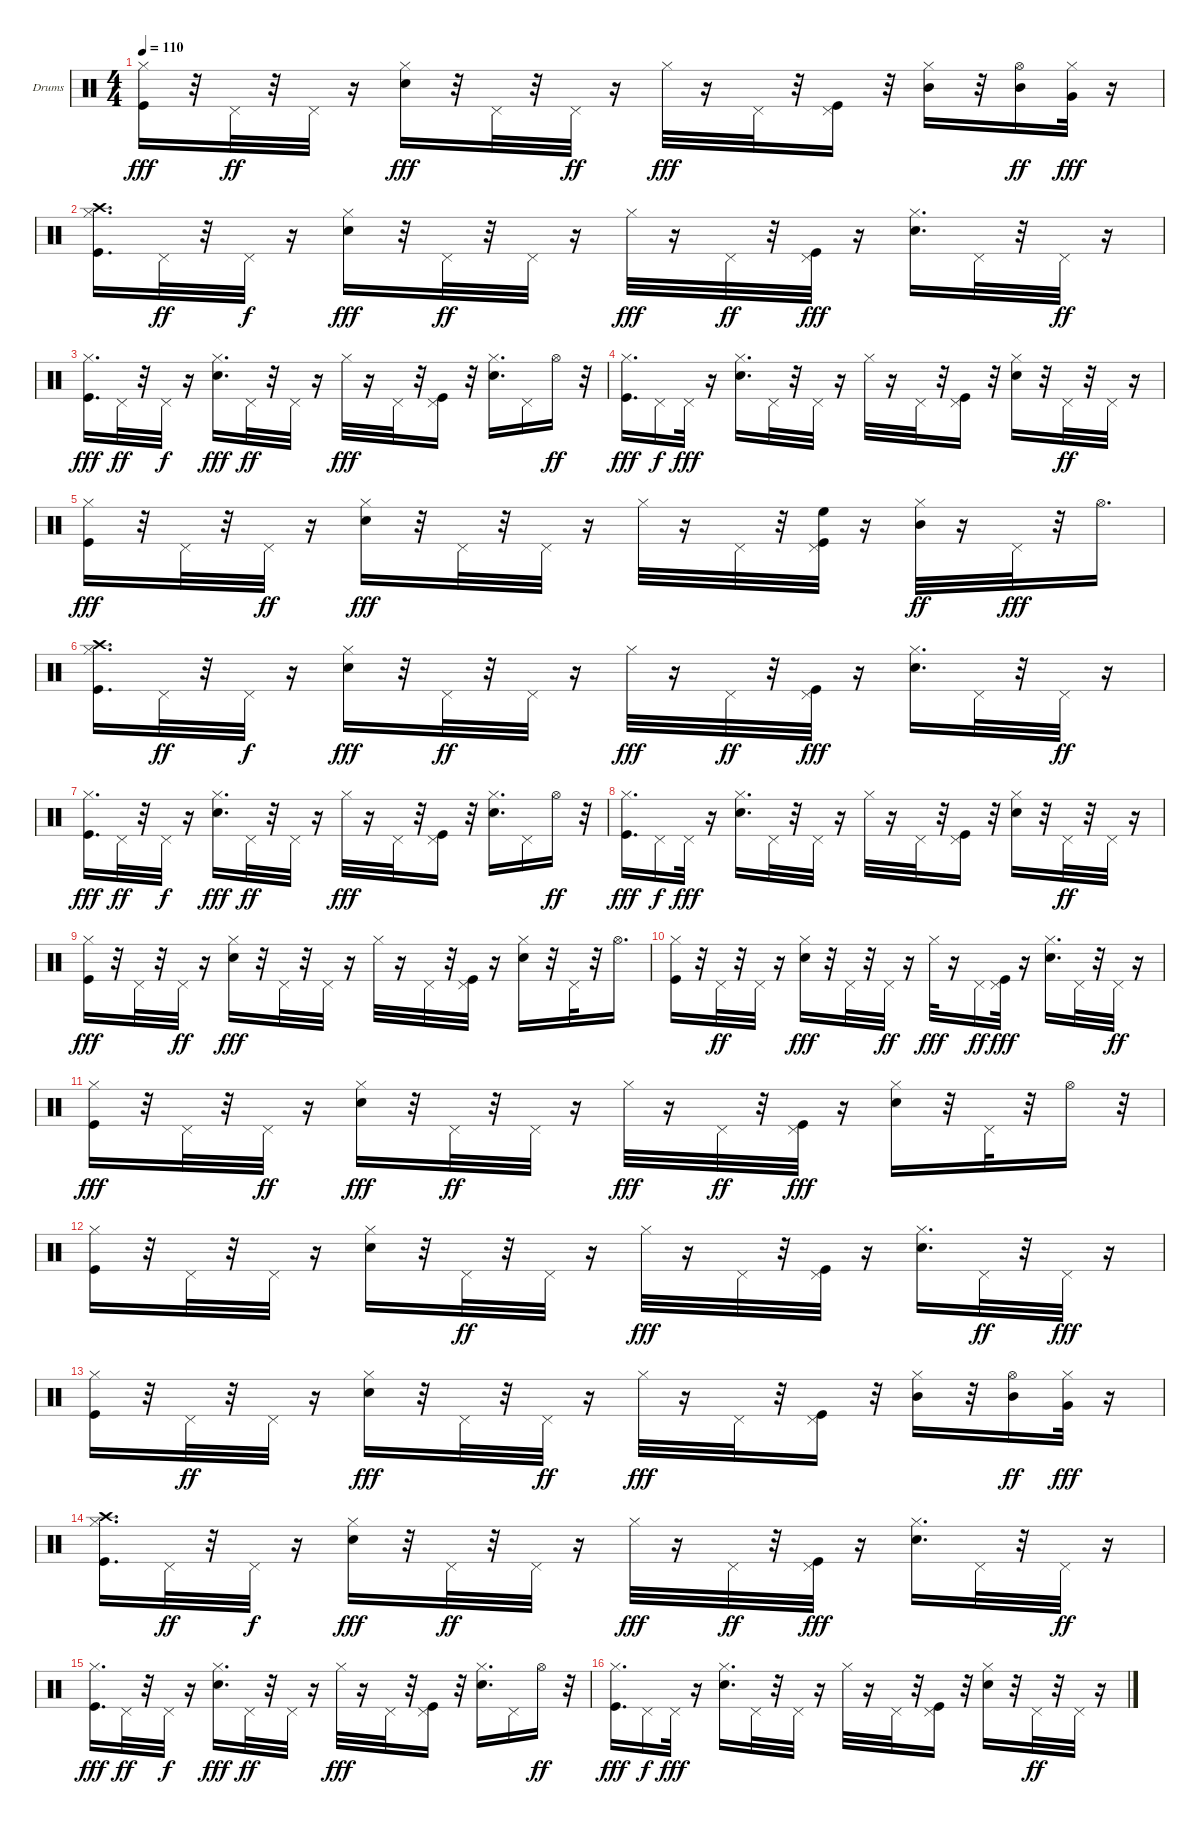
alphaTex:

\defaultSystemsLayout 4
\bracketExtendMode groupsimilarinstruments
\firstSystemTrackNameOrientation horizontal
\otherSystemsTrackNameOrientation horizontal
\track ("Drumkit" "Drums") {instrument percussion}
\staff {score}
\articulation defaults
\ts (4 4)
\tempo 110
\clef neutral
\ks c
("Kick (hit)" "Hi-Hat (closed)").16{dy fff} r.32 "Pedal Hi-Hat (hit)".32{dy ff} r.32 "Pedal Hi-Hat (hit)".32 r.16 ("Snare (hit) 2" "Hi-Hat (closed)").16{dy fff} r.32 "Pedal Hi-Hat (hit)".32 r.32 "Pedal Hi-Hat (hit)".32{dy ff} r.16 "Hi-Hat (closed)".32{dy fff} r.16 "Pedal Hi-Hat (hit)".32 r.32 ("Kick (hit)" "Pedal Hi-Hat (hit)").16 r.32 ("Mid Tom (hit)" "Hi-Hat (closed)").16 r.32 ("Mid Tom (hit)" "Hi-Hat (open)").16{dy ff} ("Very Low Tom (hit)" "Hi-Hat (closed)").32{dy fff} r.16 |
("Kick (hit)" "Crash high (hit)" "Hi-Hat (closed)").16{d} "Pedal Hi-Hat (hit)".32{dy ff} r.32 "Pedal Hi-Hat (hit)".32{dy f} r.16 ("Snare (hit) 2" "Hi-Hat (closed)").16{dy fff} r.32 "Pedal Hi-Hat (hit)".32{dy ff} r.32 "Pedal Hi-Hat (hit)".32 r.16 "Hi-Hat (closed)".32{dy fff} r.16 "Pedal Hi-Hat (hit)".32{dy ff} r.32 ("Kick (hit)" "Pedal Hi-Hat (hit)").32{dy fff} r.16 ("Snare (hit) 2" "Hi-Hat (closed)").16{d} "Pedal Hi-Hat (hit)".32 r.32 "Pedal Hi-Hat (hit)".32{dy ff} r.16 |
("Kick (hit)" "Hi-Hat (closed)").16{d dy fff} "Pedal Hi-Hat (hit)".32{dy ff} r.32 "Pedal Hi-Hat (hit)".32{dy f} r.16 ("Snare (hit) 2" "Hi-Hat (closed)").16{d dy fff} "Pedal Hi-Hat (hit)".32{dy ff} r.32 "Pedal Hi-Hat (hit)".32 r.16 "Hi-Hat (closed)".32{dy fff} r.16 "Pedal Hi-Hat (hit)".32 r.32 ("Kick (hit)" "Pedal Hi-Hat (hit)").16 r.32 ("Snare (hit) 2" "Hi-Hat (closed)").16{d} "Pedal Hi-Hat (hit)".16 "Hi-Hat (open)".16{dy ff} r.32 |
("Kick (hit)" "Hi-Hat (closed)").16{d dy fff} "Pedal Hi-Hat (hit)".16{dy f} "Pedal Hi-Hat (hit)".32{dy fff} r.16 ("Snare (hit) 2" "Hi-Hat (closed)").16{d} "Pedal Hi-Hat (hit)".32 r.32 "Pedal Hi-Hat (hit)".32 r.16 "Hi-Hat (closed)".32 r.16 "Pedal Hi-Hat (hit)".32 r.32 ("Kick (hit)" "Pedal Hi-Hat (hit)").16 r.32 ("Snare (hit) 2" "Hi-Hat (closed)").16 r.32 "Pedal Hi-Hat (hit)".32{dy ff} r.32 "Pedal Hi-Hat (hit)".32 r.16 |
("Kick (hit)" "Hi-Hat (closed)").16{dy fff} r.32 "Pedal Hi-Hat (hit)".32 r.32 "Pedal Hi-Hat (hit)".32{dy ff} r.16 ("Snare (hit) 2" "Hi-Hat (closed)").16{dy fff} r.32 "Pedal Hi-Hat (hit)".32 r.32 "Pedal Hi-Hat (hit)".32 r.16 "Hi-Hat (closed)".32 r.16 "Pedal Hi-Hat (hit)".32 r.32 ("Kick (hit)" "Pedal Hi-Hat (hit)" "High Floor Tom (hit)").32 r.16 ("Mid Tom (hit)" "Hi-Hat (closed)").32{dy ff} r.16 "Pedal Hi-Hat (hit)".32{dy fff} r.32 "Hi-Hat (open)".16{d} |
("Kick (hit)" "Crash high (hit)" "Hi-Hat (closed)").16{d} "Pedal Hi-Hat (hit)".32{dy ff} r.32 "Pedal Hi-Hat (hit)".32{dy f} r.16 ("Snare (hit) 2" "Hi-Hat (closed)").16{dy fff} r.32 "Pedal Hi-Hat (hit)".32{dy ff} r.32 "Pedal Hi-Hat (hit)".32 r.16 "Hi-Hat (closed)".32{dy fff} r.16 "Pedal Hi-Hat (hit)".32{dy ff} r.32 ("Kick (hit)" "Pedal Hi-Hat (hit)").32{dy fff} r.16 ("Snare (hit) 2" "Hi-Hat (closed)").16{d} "Pedal Hi-Hat (hit)".32 r.32 "Pedal Hi-Hat (hit)".32{dy ff} r.16 |
("Kick (hit)" "Hi-Hat (closed)").16{d dy fff} "Pedal Hi-Hat (hit)".32{dy ff} r.32 "Pedal Hi-Hat (hit)".32{dy f} r.16 ("Snare (hit) 2" "Hi-Hat (closed)").16{d dy fff} "Pedal Hi-Hat (hit)".32{dy ff} r.32 "Pedal Hi-Hat (hit)".32 r.16 "Hi-Hat (closed)".32{dy fff} r.16 "Pedal Hi-Hat (hit)".32 r.32 ("Kick (hit)" "Pedal Hi-Hat (hit)").16 r.32 ("Snare (hit) 2" "Hi-Hat (closed)").16{d} "Pedal Hi-Hat (hit)".16 "Hi-Hat (open)".16{dy ff} r.32 |
("Kick (hit)" "Hi-Hat (closed)").16{d dy fff} "Pedal Hi-Hat (hit)".16{dy f} "Pedal Hi-Hat (hit)".32{dy fff} r.16 ("Snare (hit) 2" "Hi-Hat (closed)").16{d} "Pedal Hi-Hat (hit)".32 r.32 "Pedal Hi-Hat (hit)".32 r.16 "Hi-Hat (closed)".32 r.16 "Pedal Hi-Hat (hit)".32 r.32 ("Kick (hit)" "Pedal Hi-Hat (hit)").16 r.32 ("Snare (hit) 2" "Hi-Hat (closed)").16 r.32 "Pedal Hi-Hat (hit)".32{dy ff} r.32 "Pedal Hi-Hat (hit)".32 r.16 |
("Kick (hit)" "Hi-Hat (closed)").16{dy fff} r.32 "Pedal Hi-Hat (hit)".32 r.32 "Pedal Hi-Hat (hit)".32{dy ff} r.16 ("Snare (hit) 2" "Hi-Hat (closed)").16{dy fff} r.32 "Pedal Hi-Hat (hit)".32 r.32 "Pedal Hi-Hat (hit)".32 r.16 "Hi-Hat (closed)".32 r.16 "Pedal Hi-Hat (hit)".32 r.32 ("Kick (hit)" "Pedal Hi-Hat (hit)").32 r.16 ("Snare (hit) 2" "Hi-Hat (closed)").16 r.32 "Pedal Hi-Hat (hit)".32 r.32 "Hi-Hat (open)".16{d} |
("Kick (hit)" "Hi-Hat (closed)").16 r.32 "Pedal Hi-Hat (hit)".32{dy ff} r.32 "Pedal Hi-Hat (hit)".32 r.16 ("Snare (hit) 2" "Hi-Hat (closed)").16{dy fff} r.32 "Pedal Hi-Hat (hit)".32 r.32 "Pedal Hi-Hat (hit)".32{dy ff} r.16 "Hi-Hat (closed)".32{dy fff} r.16 "Pedal Hi-Hat (hit)".16{dy ff} ("Kick (hit)" "Pedal Hi-Hat (hit)").32{dy fff} r.16 ("Snare (hit) 2" "Hi-Hat (closed)").16{d} "Pedal Hi-Hat (hit)".32 r.32 "Pedal Hi-Hat (hit)".32{dy ff} r.16 |
("Kick (hit)" "Hi-Hat (closed)").16{dy fff} r.32 "Pedal Hi-Hat (hit)".32 r.32 "Pedal Hi-Hat (hit)".32{dy ff} r.16 ("Snare (hit) 2" "Hi-Hat (closed)").16{dy fff} r.32 "Pedal Hi-Hat (hit)".32{dy ff} r.32 "Pedal Hi-Hat (hit)".32 r.16 "Hi-Hat (closed)".32{dy fff} r.16 "Pedal Hi-Hat (hit)".32{dy ff} r.32 ("Kick (hit)" "Pedal Hi-Hat (hit)").32{dy fff} r.16 ("Snare (hit) 2" "Hi-Hat (closed)").16 r.32 "Pedal Hi-Hat (hit)".32 r.32 "Hi-Hat (open)".16 r.32 |
("Kick (hit)" "Hi-Hat (closed)").16 r.32 "Pedal Hi-Hat (hit)".32 r.32 "Pedal Hi-Hat (hit)".32 r.16 ("Snare (hit) 2" "Hi-Hat (closed)").16 r.32 "Pedal Hi-Hat (hit)".32{dy ff} r.32 "Pedal Hi-Hat (hit)".32 r.16 "Hi-Hat (closed)".32{dy fff} r.16 "Pedal Hi-Hat (hit)".32 r.32 ("Kick (hit)" "Pedal Hi-Hat (hit)").32 r.16 ("Snare (hit) 2" "Hi-Hat (closed)").16{d} "Pedal Hi-Hat (hit)".32{dy ff} r.32 "Pedal Hi-Hat (hit)".32{dy fff} r.16 |
("Kick (hit)" "Hi-Hat (closed)").16 r.32 "Pedal Hi-Hat (hit)".32{dy ff} r.32 "Pedal Hi-Hat (hit)".32 r.16 ("Snare (hit) 2" "Hi-Hat (closed)").16{dy fff} r.32 "Pedal Hi-Hat (hit)".32 r.32 "Pedal Hi-Hat (hit)".32{dy ff} r.16 "Hi-Hat (closed)".32{dy fff} r.16 "Pedal Hi-Hat (hit)".32 r.32 ("Kick (hit)" "Pedal Hi-Hat (hit)").16 r.32 ("Mid Tom (hit)" "Hi-Hat (closed)").16 r.32 ("Mid Tom (hit)" "Hi-Hat (open)").16{dy ff} ("Very Low Tom (hit)" "Hi-Hat (closed)").32{dy fff} r.16 |
("Kick (hit)" "Crash high (hit)" "Hi-Hat (closed)").16{d} "Pedal Hi-Hat (hit)".32{dy ff} r.32 "Pedal Hi-Hat (hit)".32{dy f} r.16 ("Snare (hit) 2" "Hi-Hat (closed)").16{dy fff} r.32 "Pedal Hi-Hat (hit)".32{dy ff} r.32 "Pedal Hi-Hat (hit)".32 r.16 "Hi-Hat (closed)".32{dy fff} r.16 "Pedal Hi-Hat (hit)".32{dy ff} r.32 ("Kick (hit)" "Pedal Hi-Hat (hit)").32{dy fff} r.16 ("Snare (hit) 2" "Hi-Hat (closed)").16{d} "Pedal Hi-Hat (hit)".32 r.32 "Pedal Hi-Hat (hit)".32{dy ff} r.16 |
("Kick (hit)" "Hi-Hat (closed)").16{d dy fff} "Pedal Hi-Hat (hit)".32{dy ff} r.32 "Pedal Hi-Hat (hit)".32{dy f} r.16 ("Snare (hit) 2" "Hi-Hat (closed)").16{d dy fff} "Pedal Hi-Hat (hit)".32{dy ff} r.32 "Pedal Hi-Hat (hit)".32 r.16 "Hi-Hat (closed)".32{dy fff} r.16 "Pedal Hi-Hat (hit)".32 r.32 ("Kick (hit)" "Pedal Hi-Hat (hit)").16 r.32 ("Snare (hit) 2" "Hi-Hat (closed)").16{d} "Pedal Hi-Hat (hit)".16 "Hi-Hat (open)".16{dy ff} r.32 |
("Kick (hit)" "Hi-Hat (closed)").16{d dy fff} "Pedal Hi-Hat (hit)".16{dy f} "Pedal Hi-Hat (hit)".32{dy fff} r.16 ("Snare (hit) 2" "Hi-Hat (closed)").16{d} "Pedal Hi-Hat (hit)".32 r.32 "Pedal Hi-Hat (hit)".32 r.16 "Hi-Hat (closed)".32 r.16 "Pedal Hi-Hat (hit)".32 r.32 ("Kick (hit)" "Pedal Hi-Hat (hit)").16 r.32 ("Snare (hit) 2" "Hi-Hat (closed)").16 r.32 "Pedal Hi-Hat (hit)".32{dy ff} r.32 "Pedal Hi-Hat (hit)".32 r.16
